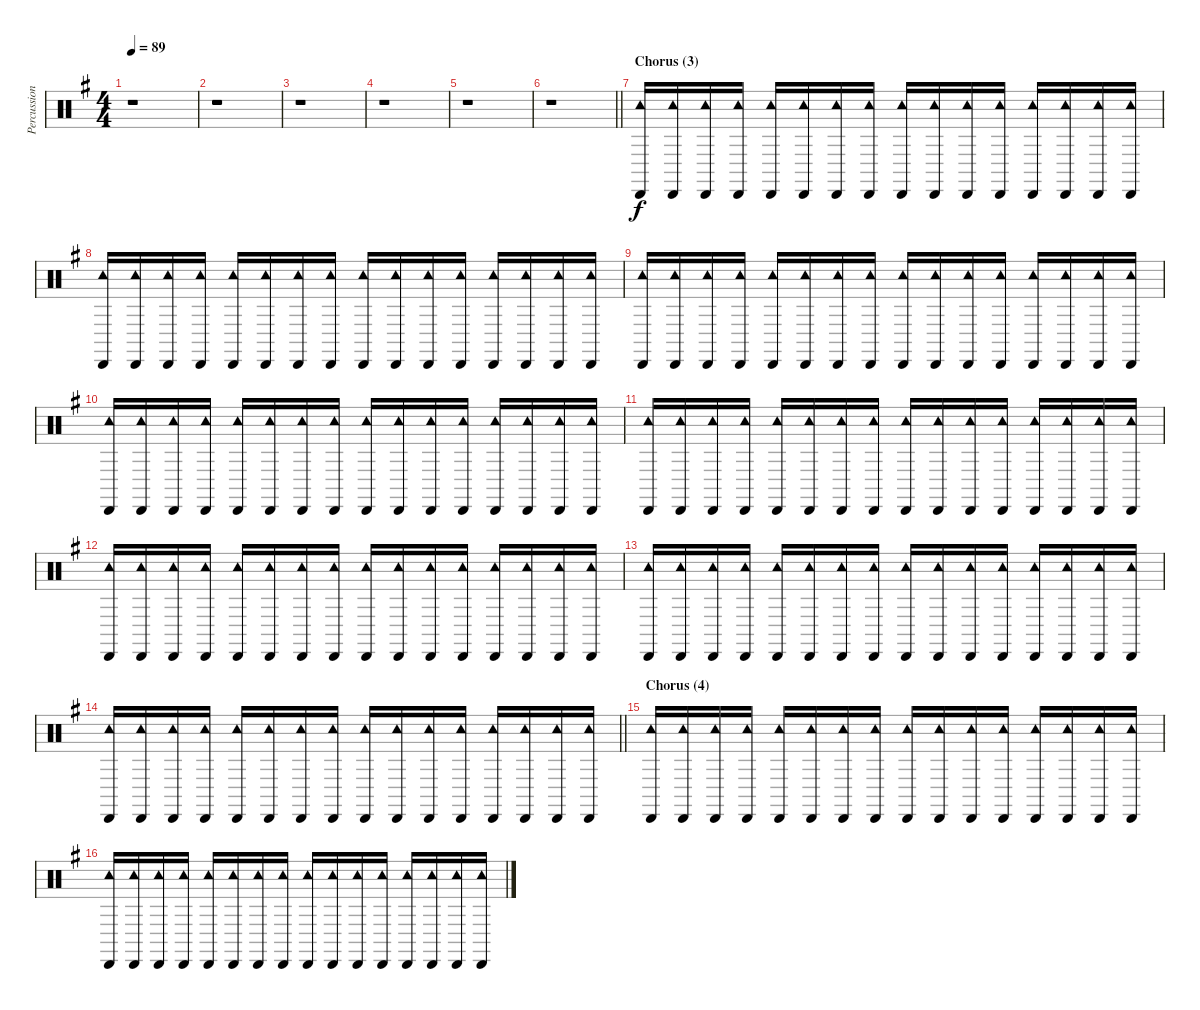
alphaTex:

\track ("Percussion" "Percussion") {instrument percussion}
\staff {score}
\articulation defaults
\ts (4 4)
\tempo 89
\clef neutral
\ks g
r.1{dy f} |
r.1 |
r.1 |
r.1 |
r.1 |
\barLineRight lightlight
r.1 |
\section ("" "Chorus (3)")
("Tambourine (hit)" "Cabasa (hit)").16 ("Tambourine (hit)" "Cabasa (hit)").16 ("Tambourine (hit)" "Cabasa (hit)").16 ("Tambourine (hit)" "Cabasa (hit)").16 ("Tambourine (hit)" "Cabasa (hit)").16 ("Tambourine (hit)" "Cabasa (hit)").16 ("Tambourine (hit)" "Cabasa (hit)").16 ("Tambourine (hit)" "Cabasa (hit)").16 ("Tambourine (hit)" "Cabasa (hit)").16 ("Tambourine (hit)" "Cabasa (hit)").16 ("Tambourine (hit)" "Cabasa (hit)").16 ("Tambourine (hit)" "Cabasa (hit)").16 ("Tambourine (hit)" "Cabasa (hit)").16 ("Tambourine (hit)" "Cabasa (hit)").16 ("Tambourine (hit)" "Cabasa (hit)").16 ("Tambourine (hit)" "Cabasa (hit)").16 |
("Tambourine (hit)" "Cabasa (hit)").16 ("Tambourine (hit)" "Cabasa (hit)").16 ("Tambourine (hit)" "Cabasa (hit)").16 ("Tambourine (hit)" "Cabasa (hit)").16 ("Tambourine (hit)" "Cabasa (hit)").16 ("Tambourine (hit)" "Cabasa (hit)").16 ("Tambourine (hit)" "Cabasa (hit)").16 ("Tambourine (hit)" "Cabasa (hit)").16 ("Tambourine (hit)" "Cabasa (hit)").16 ("Tambourine (hit)" "Cabasa (hit)").16 ("Tambourine (hit)" "Cabasa (hit)").16 ("Tambourine (hit)" "Cabasa (hit)").16 ("Tambourine (hit)" "Cabasa (hit)").16 ("Tambourine (hit)" "Cabasa (hit)").16 ("Tambourine (hit)" "Cabasa (hit)").16 ("Tambourine (hit)" "Cabasa (hit)").16 |
("Tambourine (hit)" "Cabasa (hit)").16 ("Tambourine (hit)" "Cabasa (hit)").16 ("Tambourine (hit)" "Cabasa (hit)").16 ("Tambourine (hit)" "Cabasa (hit)").16 ("Tambourine (hit)" "Cabasa (hit)").16 ("Tambourine (hit)" "Cabasa (hit)").16 ("Tambourine (hit)" "Cabasa (hit)").16 ("Tambourine (hit)" "Cabasa (hit)").16 ("Tambourine (hit)" "Cabasa (hit)").16 ("Tambourine (hit)" "Cabasa (hit)").16 ("Tambourine (hit)" "Cabasa (hit)").16 ("Tambourine (hit)" "Cabasa (hit)").16 ("Tambourine (hit)" "Cabasa (hit)").16 ("Tambourine (hit)" "Cabasa (hit)").16 ("Tambourine (hit)" "Cabasa (hit)").16 ("Tambourine (hit)" "Cabasa (hit)").16 |
("Tambourine (hit)" "Cabasa (hit)").16 ("Tambourine (hit)" "Cabasa (hit)").16 ("Tambourine (hit)" "Cabasa (hit)").16 ("Tambourine (hit)" "Cabasa (hit)").16 ("Tambourine (hit)" "Cabasa (hit)").16 ("Tambourine (hit)" "Cabasa (hit)").16 ("Tambourine (hit)" "Cabasa (hit)").16 ("Tambourine (hit)" "Cabasa (hit)").16 ("Tambourine (hit)" "Cabasa (hit)").16 ("Tambourine (hit)" "Cabasa (hit)").16 ("Tambourine (hit)" "Cabasa (hit)").16 ("Tambourine (hit)" "Cabasa (hit)").16 ("Tambourine (hit)" "Cabasa (hit)").16 ("Tambourine (hit)" "Cabasa (hit)").16 ("Tambourine (hit)" "Cabasa (hit)").16 ("Tambourine (hit)" "Cabasa (hit)").16 |
("Tambourine (hit)" "Cabasa (hit)").16 ("Tambourine (hit)" "Cabasa (hit)").16 ("Tambourine (hit)" "Cabasa (hit)").16 ("Tambourine (hit)" "Cabasa (hit)").16 ("Tambourine (hit)" "Cabasa (hit)").16 ("Tambourine (hit)" "Cabasa (hit)").16 ("Tambourine (hit)" "Cabasa (hit)").16 ("Tambourine (hit)" "Cabasa (hit)").16 ("Tambourine (hit)" "Cabasa (hit)").16 ("Tambourine (hit)" "Cabasa (hit)").16 ("Tambourine (hit)" "Cabasa (hit)").16 ("Tambourine (hit)" "Cabasa (hit)").16 ("Tambourine (hit)" "Cabasa (hit)").16 ("Tambourine (hit)" "Cabasa (hit)").16 ("Tambourine (hit)" "Cabasa (hit)").16 ("Tambourine (hit)" "Cabasa (hit)").16 |
("Tambourine (hit)" "Cabasa (hit)").16 ("Tambourine (hit)" "Cabasa (hit)").16 ("Tambourine (hit)" "Cabasa (hit)").16 ("Tambourine (hit)" "Cabasa (hit)").16 ("Tambourine (hit)" "Cabasa (hit)").16 ("Tambourine (hit)" "Cabasa (hit)").16 ("Tambourine (hit)" "Cabasa (hit)").16 ("Tambourine (hit)" "Cabasa (hit)").16 ("Tambourine (hit)" "Cabasa (hit)").16 ("Tambourine (hit)" "Cabasa (hit)").16 ("Tambourine (hit)" "Cabasa (hit)").16 ("Tambourine (hit)" "Cabasa (hit)").16 ("Tambourine (hit)" "Cabasa (hit)").16 ("Tambourine (hit)" "Cabasa (hit)").16 ("Tambourine (hit)" "Cabasa (hit)").16 ("Tambourine (hit)" "Cabasa (hit)").16 |
("Tambourine (hit)" "Cabasa (hit)").16 ("Tambourine (hit)" "Cabasa (hit)").16 ("Tambourine (hit)" "Cabasa (hit)").16 ("Tambourine (hit)" "Cabasa (hit)").16 ("Tambourine (hit)" "Cabasa (hit)").16 ("Tambourine (hit)" "Cabasa (hit)").16 ("Tambourine (hit)" "Cabasa (hit)").16 ("Tambourine (hit)" "Cabasa (hit)").16 ("Tambourine (hit)" "Cabasa (hit)").16 ("Tambourine (hit)" "Cabasa (hit)").16 ("Tambourine (hit)" "Cabasa (hit)").16 ("Tambourine (hit)" "Cabasa (hit)").16 ("Tambourine (hit)" "Cabasa (hit)").16 ("Tambourine (hit)" "Cabasa (hit)").16 ("Tambourine (hit)" "Cabasa (hit)").16 ("Tambourine (hit)" "Cabasa (hit)").16 |
\barLineRight lightlight
("Tambourine (hit)" "Cabasa (hit)").16 ("Tambourine (hit)" "Cabasa (hit)").16 ("Tambourine (hit)" "Cabasa (hit)").16 ("Tambourine (hit)" "Cabasa (hit)").16 ("Tambourine (hit)" "Cabasa (hit)").16 ("Tambourine (hit)" "Cabasa (hit)").16 ("Tambourine (hit)" "Cabasa (hit)").16 ("Tambourine (hit)" "Cabasa (hit)").16 ("Tambourine (hit)" "Cabasa (hit)").16 ("Tambourine (hit)" "Cabasa (hit)").16 ("Tambourine (hit)" "Cabasa (hit)").16 ("Tambourine (hit)" "Cabasa (hit)").16 ("Tambourine (hit)" "Cabasa (hit)").16 ("Tambourine (hit)" "Cabasa (hit)").16 ("Tambourine (hit)" "Cabasa (hit)").16 ("Tambourine (hit)" "Cabasa (hit)").16 |
\section ("" "Chorus (4)")
("Tambourine (hit)" "Cabasa (hit)").16 ("Tambourine (hit)" "Cabasa (hit)").16 ("Tambourine (hit)" "Cabasa (hit)").16 ("Tambourine (hit)" "Cabasa (hit)").16 ("Tambourine (hit)" "Cabasa (hit)").16 ("Tambourine (hit)" "Cabasa (hit)").16 ("Tambourine (hit)" "Cabasa (hit)").16 ("Tambourine (hit)" "Cabasa (hit)").16 ("Tambourine (hit)" "Cabasa (hit)").16 ("Tambourine (hit)" "Cabasa (hit)").16 ("Tambourine (hit)" "Cabasa (hit)").16 ("Tambourine (hit)" "Cabasa (hit)").16 ("Tambourine (hit)" "Cabasa (hit)").16 ("Tambourine (hit)" "Cabasa (hit)").16 ("Tambourine (hit)" "Cabasa (hit)").16 ("Tambourine (hit)" "Cabasa (hit)").16 |
("Tambourine (hit)" "Cabasa (hit)").16 ("Tambourine (hit)" "Cabasa (hit)").16 ("Tambourine (hit)" "Cabasa (hit)").16 ("Tambourine (hit)" "Cabasa (hit)").16 ("Tambourine (hit)" "Cabasa (hit)").16 ("Tambourine (hit)" "Cabasa (hit)").16 ("Tambourine (hit)" "Cabasa (hit)").16 ("Tambourine (hit)" "Cabasa (hit)").16 ("Tambourine (hit)" "Cabasa (hit)").16 ("Tambourine (hit)" "Cabasa (hit)").16 ("Tambourine (hit)" "Cabasa (hit)").16 ("Tambourine (hit)" "Cabasa (hit)").16 ("Tambourine (hit)" "Cabasa (hit)").16 ("Tambourine (hit)" "Cabasa (hit)").16 ("Tambourine (hit)" "Cabasa (hit)").16 ("Tambourine (hit)" "Cabasa (hit)").16
